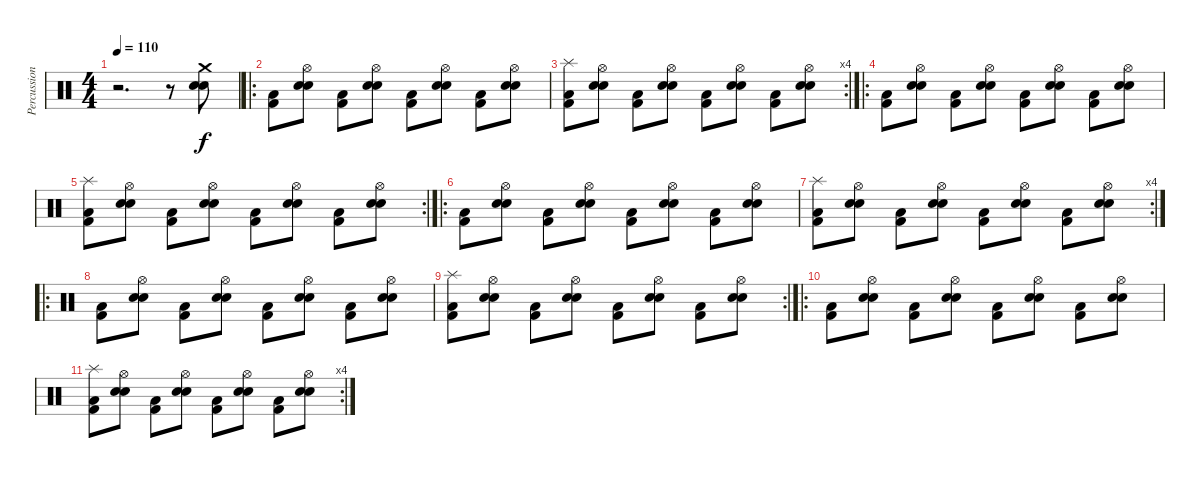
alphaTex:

\track ("Percussions" "Percussion") {instrument percussion}
\staff {score}
\articulation defaults
\ts (4 4)
\tempo 110
\clef neutral
\ks c
r.2{d dy f} r.8 ("Snare (hit) 2" "Electric Snare (hit)" "Crash medium (hit)").8 |
\ro
("Kick (hit) 2" "Low Floor Tom (hit)").8 ("Snare (hit) 2" "Electric Snare (hit)" "Hi-Hat (open)").8 ("Kick (hit) 2" "Low Floor Tom (hit)").8 ("Snare (hit) 2" "Electric Snare (hit)" "Hi-Hat (open)").8 ("Kick (hit) 2" "Low Floor Tom (hit)").8 ("Snare (hit) 2" "Electric Snare (hit)" "Hi-Hat (open)").8 ("Kick (hit) 2" "Low Floor Tom (hit)").8 ("Snare (hit) 2" "Electric Snare (hit)" "Hi-Hat (open)").8 |
\rc 4
("Splash (hit)" "Kick (hit) 2" "Low Floor Tom (hit)").8 ("Snare (hit) 2" "Electric Snare (hit)" "Hi-Hat (open)").8 ("Kick (hit) 2" "Low Floor Tom (hit)").8 ("Snare (hit) 2" "Electric Snare (hit)" "Hi-Hat (open)").8 ("Kick (hit) 2" "Low Floor Tom (hit)").8 ("Snare (hit) 2" "Electric Snare (hit)" "Hi-Hat (open)").8 ("Kick (hit) 2" "Low Floor Tom (hit)").8 ("Snare (hit) 2" "Electric Snare (hit)" "Hi-Hat (open)").8 |
\ro
("Kick (hit) 2" "Low Floor Tom (hit)").8 ("Snare (hit) 2" "Electric Snare (hit)" "Hi-Hat (open)").8 ("Kick (hit) 2" "Low Floor Tom (hit)").8 ("Snare (hit) 2" "Electric Snare (hit)" "Hi-Hat (open)").8 ("Kick (hit) 2" "Low Floor Tom (hit)").8 ("Snare (hit) 2" "Electric Snare (hit)" "Hi-Hat (open)").8 ("Kick (hit) 2" "Low Floor Tom (hit)").8 ("Snare (hit) 2" "Electric Snare (hit)" "Hi-Hat (open)").8 |
\rc 2
("Splash (hit)" "Kick (hit) 2" "Low Floor Tom (hit)").8 ("Snare (hit) 2" "Electric Snare (hit)" "Hi-Hat (open)").8 ("Kick (hit) 2" "Low Floor Tom (hit)").8 ("Snare (hit) 2" "Electric Snare (hit)" "Hi-Hat (open)").8 ("Kick (hit) 2" "Low Floor Tom (hit)").8 ("Snare (hit) 2" "Electric Snare (hit)" "Hi-Hat (open)").8 ("Kick (hit) 2" "Low Floor Tom (hit)").8 ("Snare (hit) 2" "Electric Snare (hit)" "Hi-Hat (open)").8 |
\ro
("Kick (hit) 2" "Low Floor Tom (hit)").8 ("Snare (hit) 2" "Electric Snare (hit)" "Hi-Hat (open)").8 ("Kick (hit) 2" "Low Floor Tom (hit)").8 ("Snare (hit) 2" "Electric Snare (hit)" "Hi-Hat (open)").8 ("Kick (hit) 2" "Low Floor Tom (hit)").8 ("Snare (hit) 2" "Electric Snare (hit)" "Hi-Hat (open)").8 ("Kick (hit) 2" "Low Floor Tom (hit)").8 ("Snare (hit) 2" "Electric Snare (hit)" "Hi-Hat (open)").8 |
\rc 4
("Splash (hit)" "Kick (hit) 2" "Low Floor Tom (hit)").8 ("Snare (hit) 2" "Electric Snare (hit)" "Hi-Hat (open)").8 ("Kick (hit) 2" "Low Floor Tom (hit)").8 ("Snare (hit) 2" "Electric Snare (hit)" "Hi-Hat (open)").8 ("Kick (hit) 2" "Low Floor Tom (hit)").8 ("Snare (hit) 2" "Electric Snare (hit)" "Hi-Hat (open)").8 ("Kick (hit) 2" "Low Floor Tom (hit)").8 ("Snare (hit) 2" "Electric Snare (hit)" "Hi-Hat (open)").8 |
\ro
("Kick (hit) 2" "Low Floor Tom (hit)").8 ("Snare (hit) 2" "Electric Snare (hit)" "Hi-Hat (open)").8 ("Kick (hit) 2" "Low Floor Tom (hit)").8 ("Snare (hit) 2" "Electric Snare (hit)" "Hi-Hat (open)").8 ("Kick (hit) 2" "Low Floor Tom (hit)").8 ("Snare (hit) 2" "Electric Snare (hit)" "Hi-Hat (open)").8 ("Kick (hit) 2" "Low Floor Tom (hit)").8 ("Snare (hit) 2" "Electric Snare (hit)" "Hi-Hat (open)").8 |
\rc 2
("Splash (hit)" "Kick (hit) 2" "Low Floor Tom (hit)").8 ("Snare (hit) 2" "Electric Snare (hit)" "Hi-Hat (open)").8 ("Kick (hit) 2" "Low Floor Tom (hit)").8 ("Snare (hit) 2" "Electric Snare (hit)" "Hi-Hat (open)").8 ("Kick (hit) 2" "Low Floor Tom (hit)").8 ("Snare (hit) 2" "Electric Snare (hit)" "Hi-Hat (open)").8 ("Kick (hit) 2" "Low Floor Tom (hit)").8 ("Snare (hit) 2" "Electric Snare (hit)" "Hi-Hat (open)").8 |
\ro
("Kick (hit) 2" "Low Floor Tom (hit)").8 ("Snare (hit) 2" "Electric Snare (hit)" "Hi-Hat (open)").8 ("Kick (hit) 2" "Low Floor Tom (hit)").8 ("Snare (hit) 2" "Electric Snare (hit)" "Hi-Hat (open)").8 ("Kick (hit) 2" "Low Floor Tom (hit)").8 ("Snare (hit) 2" "Electric Snare (hit)" "Hi-Hat (open)").8 ("Kick (hit) 2" "Low Floor Tom (hit)").8 ("Snare (hit) 2" "Electric Snare (hit)" "Hi-Hat (open)").8 |
\rc 4
("Splash (hit)" "Kick (hit) 2" "Low Floor Tom (hit)").8 ("Snare (hit) 2" "Electric Snare (hit)" "Hi-Hat (open)").8 ("Kick (hit) 2" "Low Floor Tom (hit)").8 ("Snare (hit) 2" "Electric Snare (hit)" "Hi-Hat (open)").8 ("Kick (hit) 2" "Low Floor Tom (hit)").8 ("Snare (hit) 2" "Electric Snare (hit)" "Hi-Hat (open)").8 ("Kick (hit) 2" "Low Floor Tom (hit)").8 ("Snare (hit) 2" "Electric Snare (hit)" "Hi-Hat (open)").8
